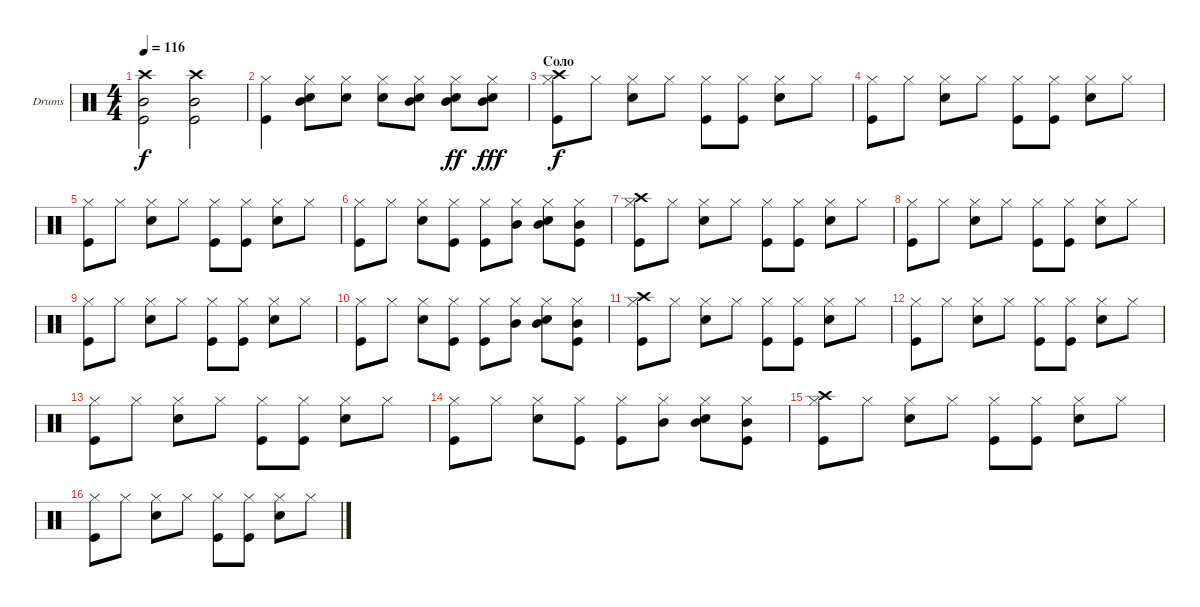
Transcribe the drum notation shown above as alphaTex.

\defaultSystemsLayout 4
\bracketExtendMode groupsimilarinstruments
\firstSystemTrackNameOrientation horizontal
\otherSystemsTrackNameOrientation horizontal
\track ("Drumkit" "Drums") {instrument percussion}
\staff {score}
\articulation defaults
\ts (4 4)
\tempo 116
\clef neutral
\ks c
("Crash high (hit)" "Kick (hit)" "Mid Tom (hit)").2{dy f} ("Crash high (hit)" "Kick (hit)" "Mid Tom (hit)").2 |
("Hi-Hat (closed)" "Kick (hit)").4 ("Hi-Hat (closed)" "Snare (hit) 2" "Mid Tom (hit)").8 ("Hi-Hat (closed)" "Snare (hit) 2").8 ("Hi-Hat (closed)" "Snare (hit) 2").8 ("Hi-Hat (closed)" "Snare (hit) 2" "Mid Tom (hit)").8 ("Hi-Hat (closed)" "Snare (hit) 2" "Mid Tom (hit)").8{dy ff} ("Hi-Hat (closed)" "Snare (hit) 2" "Mid Tom (hit)").8{dy fff} |
\section ("" "Соло")
("Hi-Hat (closed)" "Crash high (hit)" "Kick (hit)").8{dy f} "Hi-Hat (closed)".8 ("Hi-Hat (closed)" "Snare (hit) 2").8 "Hi-Hat (closed)".8 ("Hi-Hat (closed)" "Kick (hit)").8 ("Hi-Hat (closed)" "Kick (hit)").8 ("Hi-Hat (closed)" "Snare (hit) 2").8 "Hi-Hat (closed)".8 |
("Hi-Hat (closed)" "Kick (hit)").8 "Hi-Hat (closed)".8 ("Hi-Hat (closed)" "Snare (hit) 2").8 "Hi-Hat (closed)".8 ("Hi-Hat (closed)" "Kick (hit)").8 ("Hi-Hat (closed)" "Kick (hit)").8 ("Hi-Hat (closed)" "Snare (hit) 2").8 "Hi-Hat (closed)".8 |
("Hi-Hat (closed)" "Kick (hit)").8 "Hi-Hat (closed)".8 ("Hi-Hat (closed)" "Snare (hit) 2").8 "Hi-Hat (closed)".8 ("Hi-Hat (closed)" "Kick (hit)").8 ("Hi-Hat (closed)" "Kick (hit)").8 ("Hi-Hat (closed)" "Snare (hit) 2").8 "Hi-Hat (closed)".8 |
("Hi-Hat (closed)" "Kick (hit)").8 "Hi-Hat (closed)".8 ("Hi-Hat (closed)" "Snare (hit) 2").8 ("Hi-Hat (closed)" "Kick (hit)").8 ("Hi-Hat (closed)" "Kick (hit)").8 ("Hi-Hat (closed)" "Mid Tom (hit)").8 ("Hi-Hat (closed)" "Snare (hit) 2" "Mid Tom (hit)").8 ("Hi-Hat (closed)" "Kick (hit)" "Mid Tom (hit)").8 |
("Hi-Hat (closed)" "Crash high (hit)" "Kick (hit)").8 "Hi-Hat (closed)".8 ("Hi-Hat (closed)" "Snare (hit) 2").8 "Hi-Hat (closed)".8 ("Hi-Hat (closed)" "Kick (hit)").8 ("Hi-Hat (closed)" "Kick (hit)").8 ("Hi-Hat (closed)" "Snare (hit) 2").8 "Hi-Hat (closed)".8 |
("Hi-Hat (closed)" "Kick (hit)").8 "Hi-Hat (closed)".8 ("Hi-Hat (closed)" "Snare (hit) 2").8 "Hi-Hat (closed)".8 ("Hi-Hat (closed)" "Kick (hit)").8 ("Hi-Hat (closed)" "Kick (hit)").8 ("Hi-Hat (closed)" "Snare (hit) 2").8 "Hi-Hat (closed)".8 |
("Hi-Hat (closed)" "Kick (hit)").8 "Hi-Hat (closed)".8 ("Hi-Hat (closed)" "Snare (hit) 2").8 "Hi-Hat (closed)".8 ("Hi-Hat (closed)" "Kick (hit)").8 ("Hi-Hat (closed)" "Kick (hit)").8 ("Hi-Hat (closed)" "Snare (hit) 2").8 "Hi-Hat (closed)".8 |
("Hi-Hat (closed)" "Kick (hit)").8 "Hi-Hat (closed)".8 ("Hi-Hat (closed)" "Snare (hit) 2").8 ("Hi-Hat (closed)" "Kick (hit)").8 ("Hi-Hat (closed)" "Kick (hit)").8 ("Hi-Hat (closed)" "Mid Tom (hit)").8 ("Hi-Hat (closed)" "Snare (hit) 2" "Mid Tom (hit)").8 ("Hi-Hat (closed)" "Kick (hit)" "Mid Tom (hit)").8 |
("Hi-Hat (closed)" "Crash high (hit)" "Kick (hit)").8 "Hi-Hat (closed)".8 ("Hi-Hat (closed)" "Snare (hit) 2").8 "Hi-Hat (closed)".8 ("Hi-Hat (closed)" "Kick (hit)").8 ("Hi-Hat (closed)" "Kick (hit)").8 ("Hi-Hat (closed)" "Snare (hit) 2").8 "Hi-Hat (closed)".8 |
("Hi-Hat (closed)" "Kick (hit)").8 "Hi-Hat (closed)".8 ("Hi-Hat (closed)" "Snare (hit) 2").8 "Hi-Hat (closed)".8 ("Hi-Hat (closed)" "Kick (hit)").8 ("Hi-Hat (closed)" "Kick (hit)").8 ("Hi-Hat (closed)" "Snare (hit) 2").8 "Hi-Hat (closed)".8 |
("Hi-Hat (closed)" "Kick (hit)").8 "Hi-Hat (closed)".8 ("Hi-Hat (closed)" "Snare (hit) 2").8 "Hi-Hat (closed)".8 ("Hi-Hat (closed)" "Kick (hit)").8 ("Hi-Hat (closed)" "Kick (hit)").8 ("Hi-Hat (closed)" "Snare (hit) 2").8 "Hi-Hat (closed)".8 |
("Hi-Hat (closed)" "Kick (hit)").8 "Hi-Hat (closed)".8 ("Hi-Hat (closed)" "Snare (hit) 2").8 ("Hi-Hat (closed)" "Kick (hit)").8 ("Hi-Hat (closed)" "Kick (hit)").8 ("Hi-Hat (closed)" "Mid Tom (hit)").8 ("Hi-Hat (closed)" "Snare (hit) 2" "Mid Tom (hit)").8 ("Hi-Hat (closed)" "Kick (hit)" "Mid Tom (hit)").8 |
("Hi-Hat (closed)" "Crash high (hit)" "Kick (hit)").8 "Hi-Hat (closed)".8 ("Hi-Hat (closed)" "Snare (hit) 2").8 "Hi-Hat (closed)".8 ("Hi-Hat (closed)" "Kick (hit)").8 ("Hi-Hat (closed)" "Kick (hit)").8 ("Hi-Hat (closed)" "Snare (hit) 2").8 "Hi-Hat (closed)".8 |
("Hi-Hat (closed)" "Kick (hit)").8 "Hi-Hat (closed)".8 ("Hi-Hat (closed)" "Snare (hit) 2").8 "Hi-Hat (closed)".8 ("Hi-Hat (closed)" "Kick (hit)").8 ("Hi-Hat (closed)" "Kick (hit)").8 ("Hi-Hat (closed)" "Snare (hit) 2").8 "Hi-Hat (closed)".8
